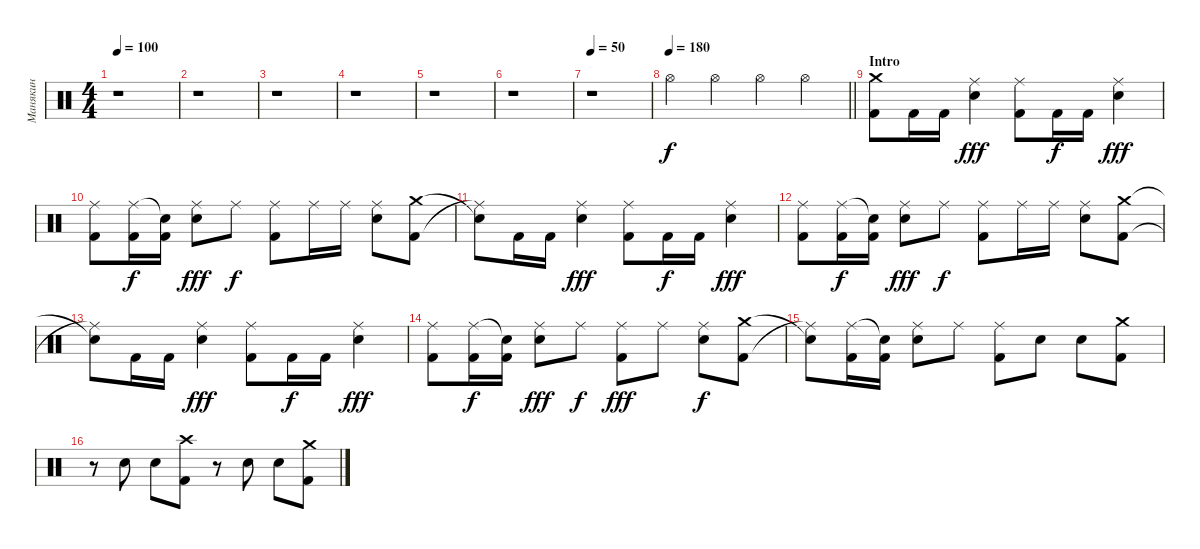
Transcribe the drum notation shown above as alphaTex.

\track ("Манякин" "Манякин") {instrument percussion}
\staff {score}
\articulation defaults
\ts (4 4)
\tempo 100
\clef neutral
\ks c
r.1{dy f} |
r.1 |
r.1 |
r.1 |
r.1 |
r.1 |
\tempo 50
r.1 |
\tempo 180
\barLineRight lightlight "Hi-Hat (open)".4 "Hi-Hat (open)".4 "Hi-Hat (open)".4 "Hi-Hat (open)".4
|
\section ("" "Intro ")
("Kick (hit) 2" "Crash medium (hit)").8 "Kick (hit) 2".16 "Kick (hit) 2".16 ("Snare (hit) 2" "Ride (middle)").4{dy fff} ("Kick (hit) 2" "Ride (middle)").8 "Kick (hit) 2".16{dy f} "Kick (hit) 2".16 ("Snare (hit) 2" "Ride (middle)").4{dy fff} |
("Kick (hit) 2" "Ride (middle)").8 ("Kick (hit) 2" "Ride (middle)").16{dy f} ("Kick (hit) 2" "Snare (hit)"{t}).16 ("Snare (hit) 2" "Ride (middle)").8{dy fff} "Ride (middle)".8{dy f} ("Kick (hit) 2" "Ride (middle)").8 "Ride (middle)".16 "Ride (middle)".16 ("Snare (hit) 2" "Ride (middle)").8 ("Kick (hit) 2" "Crash medium (hit)").8 |
("Ride (middle)"{t} "Snare (hit)"{t}).8 "Kick (hit) 2".16 "Kick (hit) 2".16 ("Snare (hit) 2" "Ride (middle)").4{dy fff} ("Kick (hit) 2" "Ride (middle)").8 "Kick (hit) 2".16{dy f} "Kick (hit) 2".16 ("Snare (hit) 2" "Ride (middle)").4{dy fff} |
("Kick (hit) 2" "Ride (middle)").8 ("Kick (hit) 2" "Ride (middle)").16{dy f} ("Kick (hit) 2" "Snare (hit)"{t}).16 ("Snare (hit) 2" "Ride (middle)").8{dy fff} "Ride (middle)".8{dy f} ("Kick (hit) 2" "Ride (middle)").8 "Ride (middle)".16 "Ride (middle)".16 ("Snare (hit) 2" "Ride (middle)").8 ("Kick (hit) 2" "Crash medium (hit)").8 |
("Ride (middle)"{t} "Snare (hit)"{t}).8 "Kick (hit) 2".16 "Kick (hit) 2".16 ("Snare (hit) 2" "Ride (middle)").4{dy fff} ("Kick (hit) 2" "Ride (middle)").8 "Kick (hit) 2".16{dy f} "Kick (hit) 2".16 ("Snare (hit) 2" "Ride (middle)").4{dy fff} |
("Kick (hit) 2" "Ride (middle)").8 ("Kick (hit) 2" "Ride (middle)").16{dy f} ("Kick (hit) 2" "Snare (hit)"{t}).16 ("Snare (hit) 2" "Ride (middle)").8{dy fff} "Ride (middle)".8{dy f} ("Kick (hit) 2" "Ride (middle)").8{dy fff} "Ride (middle)".8 ("Snare (hit) 2" "Ride (middle)").8{dy f} ("Kick (hit) 2" "Crash medium (hit)").8 |
("Ride (middle)"{t} "Snare (hit)"{t}).8 ("Kick (hit) 2" "Ride (middle)").16 ("Kick (hit) 2" "Snare (hit)"{t}).16 ("Snare (hit) 2" "Ride (middle)").8 "Ride (middle)".8 ("Kick (hit) 2" "Ride (middle)").8 "Snare (hit) 2".8 "Snare (hit) 2".8 ("Kick (hit) 2" "Crash medium (hit)").8 |
r.8 "Snare (hit) 2".8 "Snare (hit) 2".8 ("Kick (hit) 2" "Crash high (hit)").8 r.8 "Snare (hit) 2".8 "Snare (hit) 2".8 ("Kick (hit) 2" "Crash medium (hit)").8
